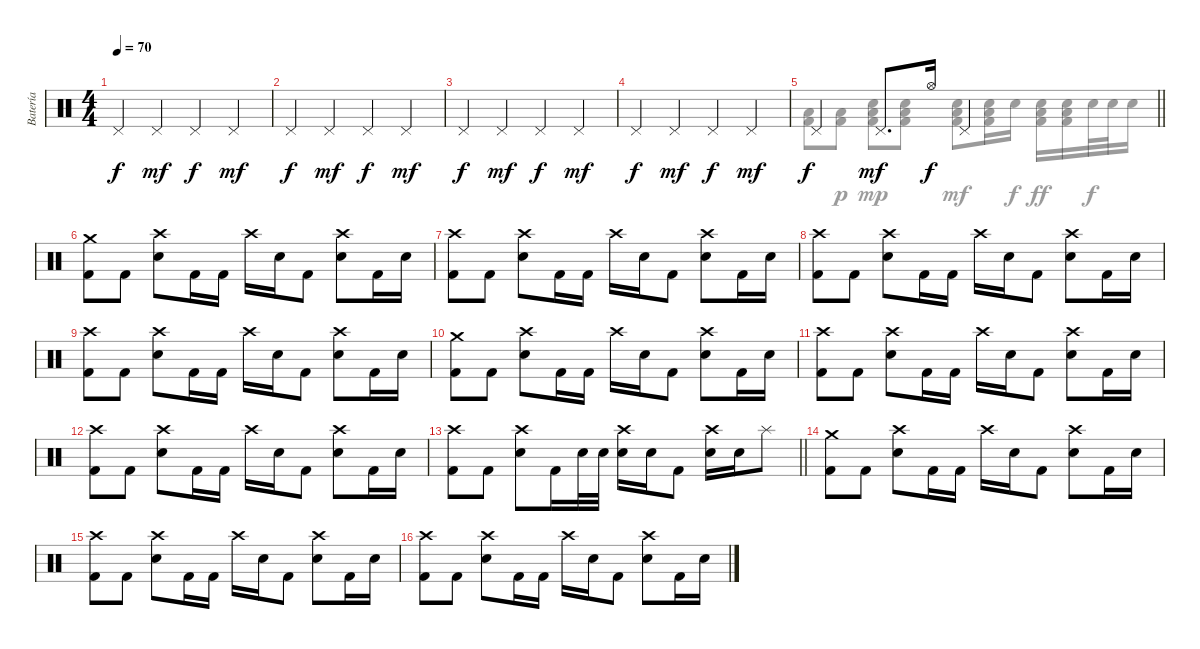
\track ("Batería" "Batería") {instrument percussion}
\staff {score}
\articulation defaults
\voice
\ts (4 4)
\tempo 70
\clef neutral
\ks c "Pedal Hi-Hat (hit)".4{dy f} "Pedal Hi-Hat (hit)".4{dy mf} "Pedal Hi-Hat (hit)".4{dy f} "Pedal Hi-Hat (hit)".4{dy mf}
|
"Pedal Hi-Hat (hit)".4{dy f} "Pedal Hi-Hat (hit)".4{dy mf} "Pedal Hi-Hat (hit)".4{dy f} "Pedal Hi-Hat (hit)".4{dy mf} |
"Pedal Hi-Hat (hit)".4{dy f} "Pedal Hi-Hat (hit)".4{dy mf} "Pedal Hi-Hat (hit)".4{dy f} "Pedal Hi-Hat (hit)".4{dy mf} |
"Pedal Hi-Hat (hit)".4{dy f} "Pedal Hi-Hat (hit)".4{dy mf} "Pedal Hi-Hat (hit)".4{dy f} "Pedal Hi-Hat (hit)".4{dy mf} |
\barLineRight lightlight "Pedal Hi-Hat (hit)".4{dy f} "Pedal Hi-Hat (hit)".8{d dy mf} "Hi-Hat (open)".16{dy f} "Pedal Hi-Hat (hit)".2
|
("Crash medium (hit)" "Kick (hit) 2").8 "Kick (hit) 2".8 ("Crash high (hit)" "Electric Snare (hit)").8 "Kick (hit) 2".16 "Kick (hit) 2".16 "Crash high (hit)".16 "Electric Snare (hit)".16 "Kick (hit) 2".8 ("Crash high (hit)" "Electric Snare (hit)").8 "Kick (hit) 2".16 "Electric Snare (hit)".16 |
("Crash high (hit)" "Kick (hit) 2").8 "Kick (hit) 2".8 ("Crash high (hit)" "Electric Snare (hit)").8 "Kick (hit) 2".16 "Kick (hit) 2".16 "Crash high (hit)".16 "Electric Snare (hit)".16 "Kick (hit) 2".8 ("Crash high (hit)" "Electric Snare (hit)").8 "Kick (hit) 2".16 "Electric Snare (hit)".16 |
("Crash high (hit)" "Kick (hit) 2").8 "Kick (hit) 2".8 ("Crash high (hit)" "Electric Snare (hit)").8 "Kick (hit) 2".16 "Kick (hit) 2".16 "Crash high (hit)".16 "Electric Snare (hit)".16 "Kick (hit) 2".8 ("Crash high (hit)" "Electric Snare (hit)").8 "Kick (hit) 2".16 "Electric Snare (hit)".16 |
("Crash high (hit)" "Kick (hit) 2").8 "Kick (hit) 2".8 ("Crash high (hit)" "Electric Snare (hit)").8 "Kick (hit) 2".16 "Kick (hit) 2".16 "Crash high (hit)".16 "Electric Snare (hit)".16 "Kick (hit) 2".8 ("Crash high (hit)" "Electric Snare (hit)").8 "Kick (hit) 2".16 "Electric Snare (hit)".16 |
("Crash medium (hit)" "Kick (hit) 2").8 "Kick (hit) 2".8 ("Crash high (hit)" "Electric Snare (hit)").8 "Kick (hit) 2".16 "Kick (hit) 2".16 "Crash high (hit)".16 "Electric Snare (hit)".16 "Kick (hit) 2".8 ("Crash high (hit)" "Electric Snare (hit)").8 "Kick (hit) 2".16 "Electric Snare (hit)".16 |
("Crash high (hit)" "Kick (hit) 2").8 "Kick (hit) 2".8 ("Crash high (hit)" "Electric Snare (hit)").8 "Kick (hit) 2".16 "Kick (hit) 2".16 "Crash high (hit)".16 "Electric Snare (hit)".16 "Kick (hit) 2".8 ("Crash high (hit)" "Electric Snare (hit)").8 "Kick (hit) 2".16 "Electric Snare (hit)".16 |
("Crash high (hit)" "Kick (hit) 2").8 "Kick (hit) 2".8 ("Crash high (hit)" "Electric Snare (hit)").8 "Kick (hit) 2".16 "Kick (hit) 2".16 "Crash high (hit)".16 "Electric Snare (hit)".16 "Kick (hit) 2".8 ("Crash high (hit)" "Electric Snare (hit)").8 "Kick (hit) 2".16 "Electric Snare (hit)".16 |
\barLineRight lightlight
("Crash high (hit)" "Kick (hit) 2").8 "Kick (hit) 2".8 ("Crash high (hit)" "Electric Snare (hit)").8 "Kick (hit) 2".16 "Electric Snare (hit)".32 "Electric Snare (hit)".32 ("Crash high (hit)" "Electric Snare (hit)").16 "Electric Snare (hit)".16 "Kick (hit) 2".8 ("Crash high (hit)" "Electric Snare (hit)").16 "Electric Snare (hit)".16 "Splash (hit)".8 |
("Crash medium (hit)" "Kick (hit) 2").8 "Kick (hit) 2".8 ("Crash high (hit)" "Electric Snare (hit)").8 "Kick (hit) 2".16 "Kick (hit) 2".16 "Crash high (hit)".16 "Electric Snare (hit)".16 "Kick (hit) 2".8 ("Crash high (hit)" "Electric Snare (hit)").8 "Kick (hit) 2".16 "Electric Snare (hit)".16 |
("Crash high (hit)" "Kick (hit) 2").8 "Kick (hit) 2".8 ("Crash high (hit)" "Electric Snare (hit)").8 "Kick (hit) 2".16 "Kick (hit) 2".16 "Crash high (hit)".16 "Electric Snare (hit)".16 "Kick (hit) 2".8 ("Crash high (hit)" "Electric Snare (hit)").8 "Kick (hit) 2".16 "Electric Snare (hit)".16 |
("Crash high (hit)" "Kick (hit) 2").8 "Kick (hit) 2".8 ("Crash high (hit)" "Electric Snare (hit)").8 "Kick (hit) 2".16 "Kick (hit) 2".16 "Crash high (hit)".16 "Electric Snare (hit)".16 "Kick (hit) 2".8 ("Crash high (hit)" "Electric Snare (hit)").8 "Kick (hit) 2".16 "Electric Snare (hit)".16
\voice
\clef neutral
\ottava regular
\simile none
\ks c
|
|
|
|
\barLineRight lightlight
("Low Floor Tom (hit)" "Kick (hit) 2").8 ("Low Floor Tom (hit)" "Kick (hit) 2").8{dy p} ("Electric Snare (hit)" "Low Floor Tom (hit)" "Kick (hit) 2").8{dy mp} ("Electric Snare (hit)" "Low Floor Tom (hit)" "Kick (hit) 2").8 ("Electric Snare (hit)" "Low Floor Tom (hit)" "Kick (hit) 2").8{dy mf} ("Electric Snare (hit)" "Low Floor Tom (hit)" "Kick (hit) 2").16 "Electric Snare (hit)".16{dy f} ("Electric Snare (hit)" "Low Floor Tom (hit)" "Kick (hit) 2").16{dy ff} ("Electric Snare (hit)" "Low Floor Tom (hit)" "Kick (hit) 2").16 "Electric Snare (hit)".32{dy f} "Electric Snare (hit)".32 "Electric Snare (hit)".16 |
|
|
|
|
|
|
|
\barLineRight lightlight
|
|
|
